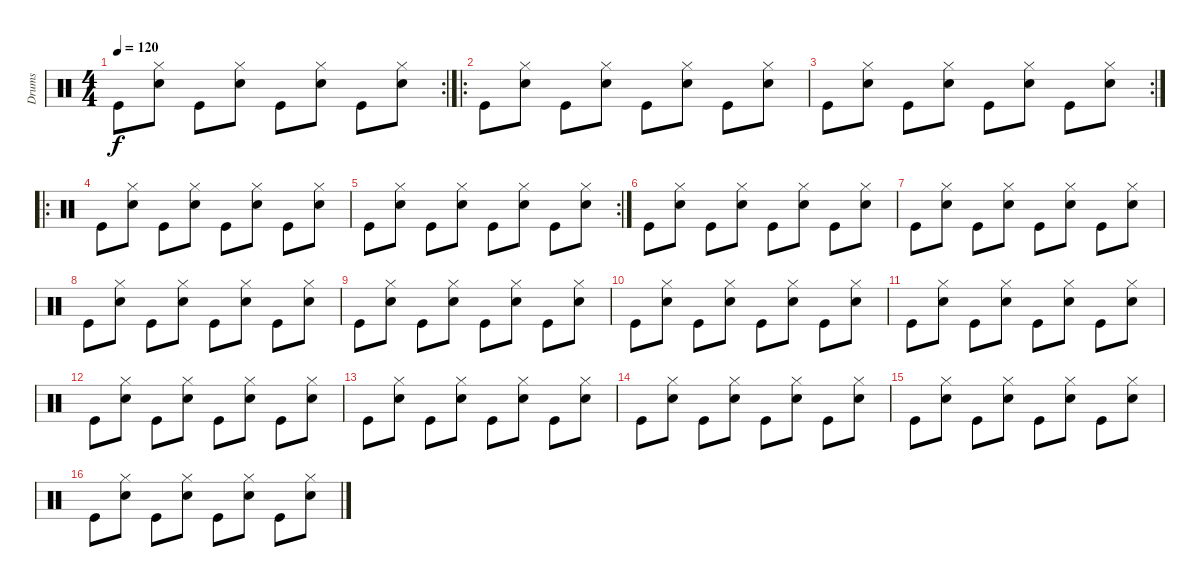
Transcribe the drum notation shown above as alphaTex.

\track ("Drums" "Drums") {instrument percussion}
\staff {score}
\articulation defaults
\rc 2
\ts (4 4)
\tempo 120
\clef neutral
\ks c "Kick (hit)".8{dy f}
("Hi-Hat (closed)" "Snare (hit) 2").8 "Kick (hit)".8 ("Hi-Hat (closed)" "Snare (hit) 2").8 "Kick (hit)".8 ("Hi-Hat (closed)" "Snare (hit) 2").8 "Kick (hit)".8 ("Hi-Hat (closed)" "Snare (hit) 2").8 |
\ro "Kick (hit)".8
("Hi-Hat (closed)" "Snare (hit) 2").8 "Kick (hit)".8 ("Hi-Hat (closed)" "Snare (hit) 2").8 "Kick (hit)".8 ("Hi-Hat (closed)" "Snare (hit) 2").8 "Kick (hit)".8 ("Hi-Hat (closed)" "Snare (hit) 2").8 |
\rc 2 "Kick (hit)".8
("Hi-Hat (closed)" "Snare (hit) 2").8 "Kick (hit)".8 ("Hi-Hat (closed)" "Snare (hit) 2").8 "Kick (hit)".8 ("Hi-Hat (closed)" "Snare (hit) 2").8 "Kick (hit)".8 ("Hi-Hat (closed)" "Snare (hit) 2").8 |
\ro "Kick (hit)".8
("Hi-Hat (closed)" "Snare (hit) 2").8 "Kick (hit)".8 ("Hi-Hat (closed)" "Snare (hit) 2").8 "Kick (hit)".8 ("Hi-Hat (closed)" "Snare (hit) 2").8 "Kick (hit)".8 ("Hi-Hat (closed)" "Snare (hit) 2").8 |
\rc 2 "Kick (hit)".8
("Hi-Hat (closed)" "Snare (hit) 2").8 "Kick (hit)".8 ("Hi-Hat (closed)" "Snare (hit) 2").8 "Kick (hit)".8 ("Hi-Hat (closed)" "Snare (hit) 2").8 "Kick (hit)".8 ("Hi-Hat (closed)" "Snare (hit) 2").8 |
"Kick (hit)".8 ("Hi-Hat (closed)" "Snare (hit) 2").8 "Kick (hit)".8 ("Hi-Hat (closed)" "Snare (hit) 2").8 "Kick (hit)".8 ("Hi-Hat (closed)" "Snare (hit) 2").8 "Kick (hit)".8 ("Hi-Hat (closed)" "Snare (hit) 2").8 |
"Kick (hit)".8 ("Hi-Hat (closed)" "Snare (hit) 2").8 "Kick (hit)".8 ("Hi-Hat (closed)" "Snare (hit) 2").8 "Kick (hit)".8 ("Hi-Hat (closed)" "Snare (hit) 2").8 "Kick (hit)".8 ("Hi-Hat (closed)" "Snare (hit) 2").8 |
"Kick (hit)".8 ("Hi-Hat (closed)" "Snare (hit) 2").8 "Kick (hit)".8 ("Hi-Hat (closed)" "Snare (hit) 2").8 "Kick (hit)".8 ("Hi-Hat (closed)" "Snare (hit) 2").8 "Kick (hit)".8 ("Hi-Hat (closed)" "Snare (hit) 2").8 |
"Kick (hit)".8 ("Hi-Hat (closed)" "Snare (hit) 2").8 "Kick (hit)".8 ("Hi-Hat (closed)" "Snare (hit) 2").8 "Kick (hit)".8 ("Hi-Hat (closed)" "Snare (hit) 2").8 "Kick (hit)".8 ("Hi-Hat (closed)" "Snare (hit) 2").8 |
"Kick (hit)".8 ("Hi-Hat (closed)" "Snare (hit) 2").8 "Kick (hit)".8 ("Hi-Hat (closed)" "Snare (hit) 2").8 "Kick (hit)".8 ("Hi-Hat (closed)" "Snare (hit) 2").8 "Kick (hit)".8 ("Hi-Hat (closed)" "Snare (hit) 2").8 |
"Kick (hit)".8 ("Hi-Hat (closed)" "Snare (hit) 2").8 "Kick (hit)".8 ("Hi-Hat (closed)" "Snare (hit) 2").8 "Kick (hit)".8 ("Hi-Hat (closed)" "Snare (hit) 2").8 "Kick (hit)".8 ("Hi-Hat (closed)" "Snare (hit) 2").8 |
"Kick (hit)".8 ("Hi-Hat (closed)" "Snare (hit) 2").8 "Kick (hit)".8 ("Hi-Hat (closed)" "Snare (hit) 2").8 "Kick (hit)".8 ("Hi-Hat (closed)" "Snare (hit) 2").8 "Kick (hit)".8 ("Hi-Hat (closed)" "Snare (hit) 2").8 |
"Kick (hit)".8 ("Hi-Hat (closed)" "Snare (hit) 2").8 "Kick (hit)".8 ("Hi-Hat (closed)" "Snare (hit) 2").8 "Kick (hit)".8 ("Hi-Hat (closed)" "Snare (hit) 2").8 "Kick (hit)".8 ("Hi-Hat (closed)" "Snare (hit) 2").8 |
"Kick (hit)".8 ("Hi-Hat (closed)" "Snare (hit) 2").8 "Kick (hit)".8 ("Hi-Hat (closed)" "Snare (hit) 2").8 "Kick (hit)".8 ("Hi-Hat (closed)" "Snare (hit) 2").8 "Kick (hit)".8 ("Hi-Hat (closed)" "Snare (hit) 2").8 |
"Kick (hit)".8 ("Hi-Hat (closed)" "Snare (hit) 2").8 "Kick (hit)".8 ("Hi-Hat (closed)" "Snare (hit) 2").8 "Kick (hit)".8 ("Hi-Hat (closed)" "Snare (hit) 2").8 "Kick (hit)".8 ("Hi-Hat (closed)" "Snare (hit) 2").8 |
"Kick (hit)".8 ("Hi-Hat (closed)" "Snare (hit) 2").8 "Kick (hit)".8 ("Hi-Hat (closed)" "Snare (hit) 2").8 "Kick (hit)".8 ("Hi-Hat (closed)" "Snare (hit) 2").8 "Kick (hit)".8 ("Hi-Hat (closed)" "Snare (hit) 2").8
